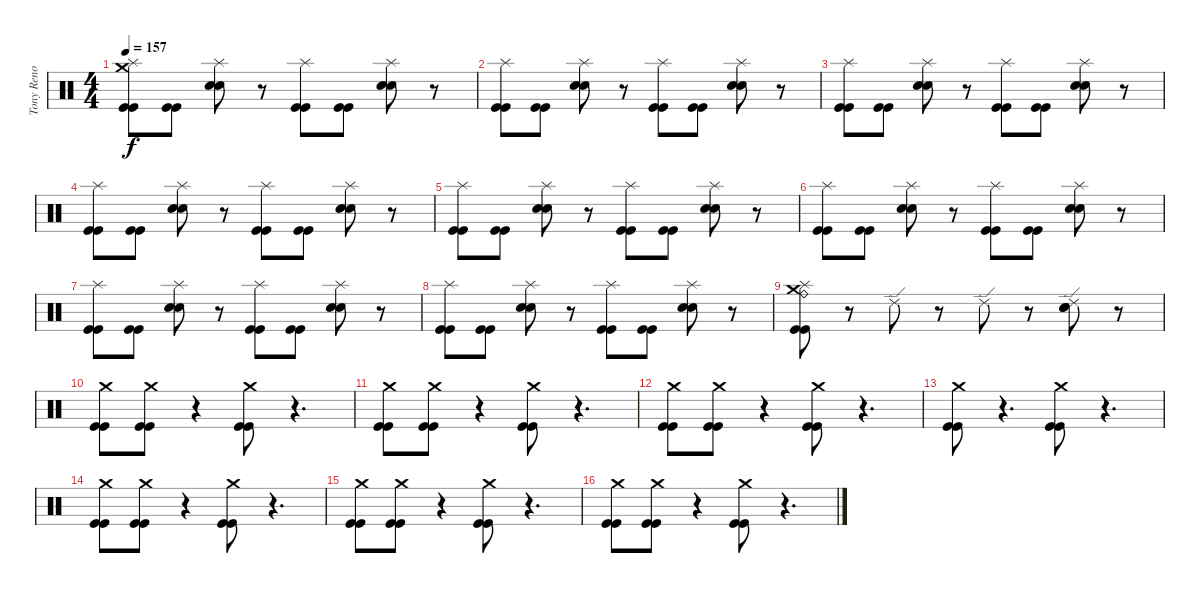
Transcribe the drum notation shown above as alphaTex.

\track ("Tony Reno ( 1984 < Ian Haughland )" "Tony Reno ") {instrument percussion}
\staff {score}
\articulation defaults
\ts (4 4)
\tempo 157
\clef neutral
\ks c
("Crash medium (hit)" "Kick (hit)" "Kick (hit)" "Splash (hit)").8{dy f} ("Kick (hit)" "Kick (hit)").8 ("Electric Snare (hit)" "Electric Snare (hit)" "Splash (hit)").8 r.8 ("Kick (hit)" "Kick (hit)" "Splash (hit)").8 ("Kick (hit)" "Kick (hit)").8 ("Splash (hit)" "Electric Snare (hit)" "Electric Snare (hit)").8 r.8 |
("Kick (hit)" "Kick (hit)" "Splash (hit)").8 ("Kick (hit)" "Kick (hit)").8 ("Electric Snare (hit)" "Electric Snare (hit)" "Splash (hit)").8 r.8 ("Kick (hit)" "Kick (hit)" "Splash (hit)").8 ("Kick (hit)" "Kick (hit)").8 ("Splash (hit)" "Electric Snare (hit)" "Electric Snare (hit)").8 r.8 |
("Kick (hit)" "Kick (hit)" "Splash (hit)").8 ("Kick (hit)" "Kick (hit)").8 ("Electric Snare (hit)" "Electric Snare (hit)" "Splash (hit)").8 r.8 ("Kick (hit)" "Kick (hit)" "Splash (hit)").8 ("Kick (hit)" "Kick (hit)").8 ("Splash (hit)" "Electric Snare (hit)" "Electric Snare (hit)").8 r.8 |
("Kick (hit)" "Kick (hit)" "Splash (hit)").8 ("Kick (hit)" "Kick (hit)").8 ("Electric Snare (hit)" "Electric Snare (hit)" "Splash (hit)").8 r.8 ("Kick (hit)" "Kick (hit)" "Splash (hit)").8 ("Kick (hit)" "Kick (hit)").8 ("Splash (hit)" "Electric Snare (hit)" "Electric Snare (hit)").8 r.8 |
("Kick (hit)" "Kick (hit)" "Splash (hit)").8 ("Kick (hit)" "Kick (hit)").8 ("Electric Snare (hit)" "Electric Snare (hit)" "Splash (hit)").8 r.8 ("Kick (hit)" "Kick (hit)" "Splash (hit)").8 ("Kick (hit)" "Kick (hit)").8 ("Splash (hit)" "Electric Snare (hit)" "Electric Snare (hit)").8 r.8 |
("Kick (hit)" "Kick (hit)" "Splash (hit)").8 ("Kick (hit)" "Kick (hit)").8 ("Electric Snare (hit)" "Electric Snare (hit)" "Splash (hit)").8 r.8 ("Kick (hit)" "Kick (hit)" "Splash (hit)").8 ("Kick (hit)" "Kick (hit)").8 ("Splash (hit)" "Electric Snare (hit)" "Electric Snare (hit)").8 r.8 |
("Kick (hit)" "Kick (hit)" "Splash (hit)").8 ("Kick (hit)" "Kick (hit)").8 ("Electric Snare (hit)" "Electric Snare (hit)" "Splash (hit)").8 r.8 ("Kick (hit)" "Kick (hit)" "Splash (hit)").8 ("Kick (hit)" "Kick (hit)").8 ("Splash (hit)" "Electric Snare (hit)" "Electric Snare (hit)").8 r.8 |
("Kick (hit)" "Kick (hit)" "Splash (hit)").8 ("Kick (hit)" "Kick (hit)").8 ("Electric Snare (hit)" "Electric Snare (hit)" "Splash (hit)").8 r.8 ("Kick (hit)" "Kick (hit)" "Splash (hit)").8 ("Kick (hit)" "Kick (hit)").8 ("Splash (hit)" "Electric Snare (hit)" "Electric Snare (hit)").8 r.8 |
("Ride (bell)" "Crash medium (hit)" "Kick (hit)" "Kick (hit)" "Splash (hit)").8 r.8 "Ride (edge) 2".8 r.8 "Ride (edge) 2".8 r.8 ("Electric Snare (hit)" "Electric Snare (hit)" "Ride (edge) 2").8 r.8 |
("Kick (hit)" "Kick (hit)" "Crash medium (hit)").8 ("Kick (hit)" "Kick (hit)" "Crash medium (hit)").8 r.4 ("Kick (hit)" "Kick (hit)" "Crash medium (hit)").8 r.4{d} |
("Kick (hit)" "Kick (hit)" "Crash medium (hit)").8 ("Kick (hit)" "Kick (hit)" "Crash medium (hit)").8 r.4 ("Kick (hit)" "Kick (hit)" "Crash medium (hit)").8 r.4{d} |
("Kick (hit)" "Kick (hit)" "Crash medium (hit)").8 ("Kick (hit)" "Kick (hit)" "Crash medium (hit)").8 r.4 ("Kick (hit)" "Kick (hit)" "Crash medium (hit)").8 r.4{d} |
("Kick (hit)" "Kick (hit)" "Crash medium (hit)").8 r.4{d} ("Crash medium (hit)" "Kick (hit)" "Kick (hit)").8 r.4{d} |
("Kick (hit)" "Kick (hit)" "Crash medium (hit)").8 ("Kick (hit)" "Kick (hit)" "Crash medium (hit)").8 r.4 ("Kick (hit)" "Kick (hit)" "Crash medium (hit)").8 r.4{d} |
("Kick (hit)" "Kick (hit)" "Crash medium (hit)").8 ("Kick (hit)" "Kick (hit)" "Crash medium (hit)").8 r.4 ("Kick (hit)" "Kick (hit)" "Crash medium (hit)").8 r.4{d} |
("Kick (hit)" "Kick (hit)" "Crash medium (hit)").8 ("Kick (hit)" "Kick (hit)" "Crash medium (hit)").8 r.4 ("Kick (hit)" "Kick (hit)" "Crash medium (hit)").8 r.4{d}
